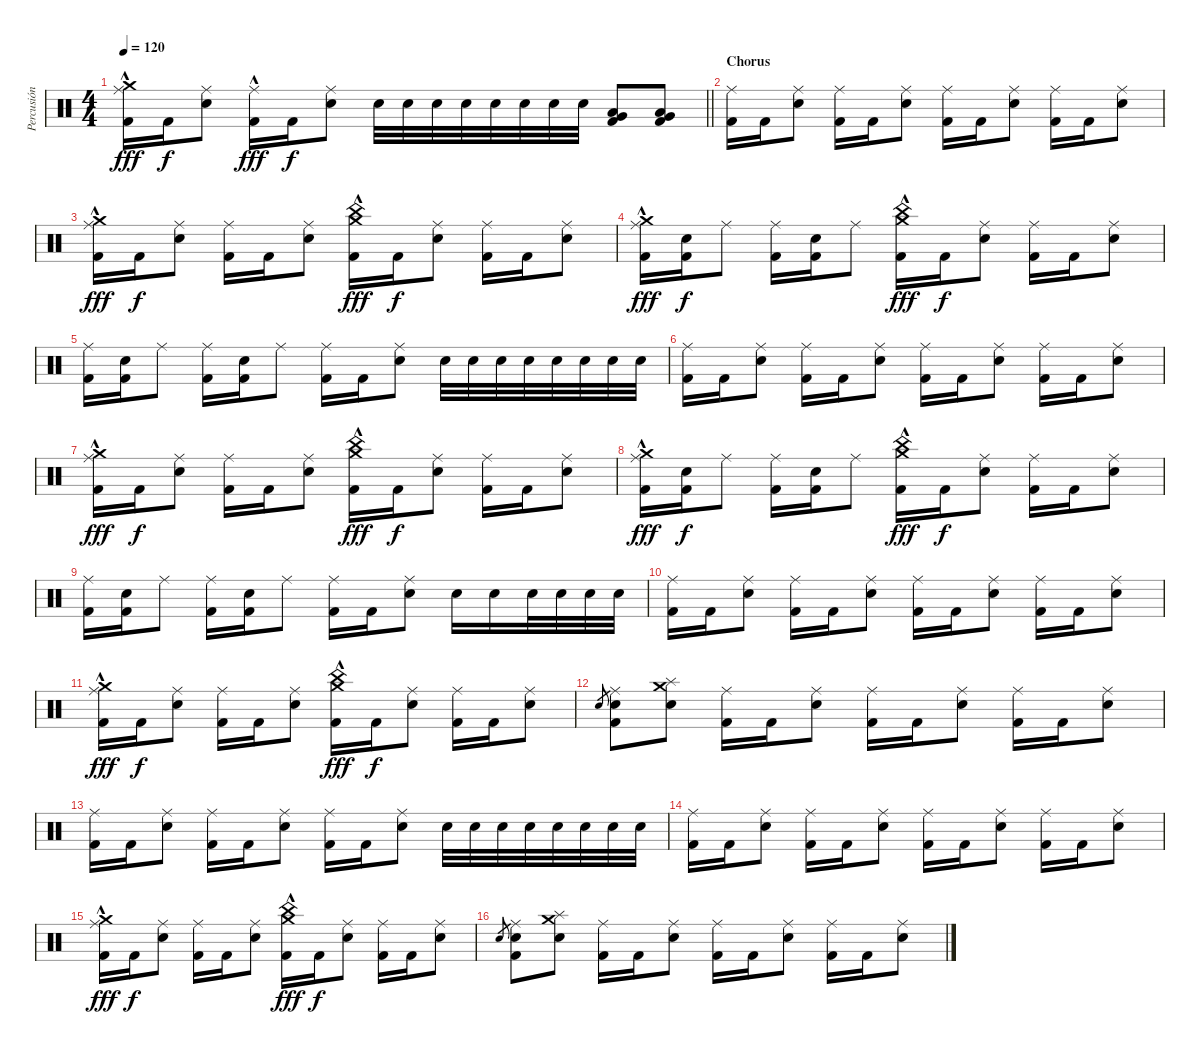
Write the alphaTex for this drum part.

\track ("Percusión" "Percusión") {instrument percussion}
\staff {score}
\articulation defaults
\ts (4 4)
\tempo 120
\clef neutral
\barLineRight lightlight
\ks c
("Crash medium (hit)"{hac} "Ride (middle)"{hac} "Kick (hit) 2").16{dy fff} "Kick (hit) 2".16{dy f} ("Ride (middle)" "Electric Snare (hit)").8 ("Ride (middle)"{hac} "Kick (hit) 2").16{dy fff} "Kick (hit) 2".16{dy f} ("Ride (middle)" "Electric Snare (hit)").8 "Electric Snare (hit)".32 "Electric Snare (hit)".32 "Electric Snare (hit)".32 "Electric Snare (hit)".32 "Electric Snare (hit)".32 "Electric Snare (hit)".32 "Electric Snare (hit)".32 "Electric Snare (hit)".32 ("Very Low Tom (hit)" "Low Tom (hit)" "Kick (hit) 2").8 ("Very Low Tom (hit)" "Low Tom (hit)" "Kick (hit) 2").8 |
\section ("" "Chorus")
("Ride (middle)" "Kick (hit) 2").16 "Kick (hit) 2".16 ("Ride (middle)" "Electric Snare (hit)").8 ("Ride (middle)" "Kick (hit) 2").16 "Kick (hit) 2".16 ("Ride (middle)" "Electric Snare (hit)").8 ("Ride (middle)" "Kick (hit) 2").16 "Kick (hit) 2".16 ("Ride (middle)" "Electric Snare (hit)").8 ("Ride (middle)" "Kick (hit) 2").16 "Kick (hit) 2".16 ("Ride (middle)" "Electric Snare (hit)").8 |
("Crash medium (hit)"{hac} "Ride (middle)"{hac} "Kick (hit) 2").16{dy fff} "Kick (hit) 2".16{dy f} ("Ride (middle)" "Electric Snare (hit)").8 ("Ride (middle)" "Kick (hit) 2").16 "Kick (hit) 2".16 ("Ride (middle)" "Electric Snare (hit)").8 ("China (hit)"{hac} "Crash medium (hit)"{hac} "Kick (hit) 2").16{dy fff} "Kick (hit) 2".16{dy f} ("Ride (middle)" "Electric Snare (hit)").8 ("Ride (middle)" "Kick (hit) 2").16 "Kick (hit) 2".16 ("Ride (middle)" "Electric Snare (hit)").8 |
("Crash medium (hit)"{hac} "Ride (middle)"{hac} "Kick (hit) 2").16{dy fff} ("Electric Snare (hit)" "Kick (hit) 2").16{dy f} "Ride (middle)".8 ("Ride (middle)" "Kick (hit) 2").16 ("Electric Snare (hit)" "Kick (hit) 2").16 "Ride (middle)".8 ("China (hit)"{hac} "Crash medium (hit)"{hac} "Kick (hit) 2").16{dy fff} "Kick (hit) 2".16{dy f} ("Ride (middle)" "Electric Snare (hit)").8 ("Ride (middle)" "Kick (hit) 2").16 "Kick (hit) 2".16 ("Ride (middle)" "Electric Snare (hit)").8 |
("Ride (middle)" "Kick (hit) 2").16 ("Electric Snare (hit)" "Kick (hit) 2").16 "Ride (middle)".8 ("Ride (middle)" "Kick (hit) 2").16 ("Electric Snare (hit)" "Kick (hit) 2").16 "Ride (middle)".8 ("Ride (middle)" "Kick (hit) 2").16 "Kick (hit) 2".16 ("Ride (middle)" "Electric Snare (hit)").8 "Electric Snare (hit)".32 "Electric Snare (hit)".32 "Electric Snare (hit)".32 "Electric Snare (hit)".32 "Electric Snare (hit)".32 "Electric Snare (hit)".32 "Electric Snare (hit)".32 "Electric Snare (hit)".32 |
("Ride (middle)" "Kick (hit) 2").16 "Kick (hit) 2".16 ("Ride (middle)" "Electric Snare (hit)").8 ("Ride (middle)" "Kick (hit) 2").16 "Kick (hit) 2".16 ("Ride (middle)" "Electric Snare (hit)").8 ("Ride (middle)" "Kick (hit) 2").16 "Kick (hit) 2".16 ("Ride (middle)" "Electric Snare (hit)").8 ("Ride (middle)" "Kick (hit) 2").16 "Kick (hit) 2".16 ("Ride (middle)" "Electric Snare (hit)").8 |
("Crash medium (hit)"{hac} "Ride (middle)"{hac} "Kick (hit) 2").16{dy fff} "Kick (hit) 2".16{dy f} ("Ride (middle)" "Electric Snare (hit)").8 ("Ride (middle)" "Kick (hit) 2").16 "Kick (hit) 2".16 ("Ride (middle)" "Electric Snare (hit)").8 ("China (hit)"{hac} "Crash medium (hit)"{hac} "Kick (hit) 2").16{dy fff} "Kick (hit) 2".16{dy f} ("Ride (middle)" "Electric Snare (hit)").8 ("Ride (middle)" "Kick (hit) 2").16 "Kick (hit) 2".16 ("Ride (middle)" "Electric Snare (hit)").8 |
("Crash medium (hit)"{hac} "Ride (middle)"{hac} "Kick (hit) 2").16{dy fff} ("Electric Snare (hit)" "Kick (hit) 2").16{dy f} "Ride (middle)".8 ("Ride (middle)" "Kick (hit) 2").16 ("Electric Snare (hit)" "Kick (hit) 2").16 "Ride (middle)".8 ("China (hit)"{hac} "Crash medium (hit)"{hac} "Kick (hit) 2").16{dy fff} "Kick (hit) 2".16{dy f} ("Ride (middle)" "Electric Snare (hit)").8 ("Ride (middle)" "Kick (hit) 2").16 "Kick (hit) 2".16 ("Ride (middle)" "Electric Snare (hit)").8 |
("Ride (middle)" "Kick (hit) 2").16 ("Electric Snare (hit)" "Kick (hit) 2").16 "Ride (middle)".8 ("Ride (middle)" "Kick (hit) 2").16 ("Electric Snare (hit)" "Kick (hit) 2").16 "Ride (middle)".8 ("Ride (middle)" "Kick (hit) 2").16 "Kick (hit) 2".16 ("Ride (middle)" "Electric Snare (hit)").8 "Electric Snare (hit)".16 "Electric Snare (hit)".16 "Electric Snare (hit)".32 "Electric Snare (hit)".32 "Electric Snare (hit)".32 "Electric Snare (hit)".32 |
("Ride (middle)" "Kick (hit) 2").16 "Kick (hit) 2".16 ("Ride (middle)" "Electric Snare (hit)").8 ("Ride (middle)" "Kick (hit) 2").16 "Kick (hit) 2".16 ("Ride (middle)" "Electric Snare (hit)").8 ("Ride (middle)" "Kick (hit) 2").16 "Kick (hit) 2".16 ("Ride (middle)" "Electric Snare (hit)").8 ("Ride (middle)" "Kick (hit) 2").16 "Kick (hit) 2".16 ("Ride (middle)" "Electric Snare (hit)").8 |
("Crash medium (hit)"{hac} "Ride (middle)"{hac} "Kick (hit) 2").16{dy fff} "Kick (hit) 2".16{dy f} ("Ride (middle)" "Electric Snare (hit)").8 ("Ride (middle)" "Kick (hit) 2").16 "Kick (hit) 2".16 ("Ride (middle)" "Electric Snare (hit)").8 ("China (hit)"{hac} "Crash medium (hit)"{hac} "Kick (hit) 2").16{dy fff} "Kick (hit) 2".16{dy f} ("Ride (middle)" "Electric Snare (hit)").8 ("Ride (middle)" "Kick (hit) 2").16 "Kick (hit) 2".16 ("Ride (middle)" "Electric Snare (hit)").8 |
"Electric Snare (hit)".8{gr} ("Ride (middle)" "Electric Snare (hit)" "Kick (hit) 2").8 ("Crash medium (hit)" "Splash (hit)" "Snare (hit) 2").8 ("Ride (middle)" "Kick (hit) 2").16 "Kick (hit) 2".16 ("Ride (middle)" "Electric Snare (hit)").8 ("Ride (middle)" "Kick (hit) 2").16 "Kick (hit) 2".16 ("Ride (middle)" "Electric Snare (hit)").8 ("Ride (middle)" "Kick (hit) 2").16 "Kick (hit) 2".16 ("Ride (middle)" "Electric Snare (hit)").8 |
("Ride (middle)" "Kick (hit) 2").16 "Kick (hit) 2".16 ("Ride (middle)" "Electric Snare (hit)").8 ("Ride (middle)" "Kick (hit) 2").16 "Kick (hit) 2".16 ("Ride (middle)" "Electric Snare (hit)").8 ("Ride (middle)" "Kick (hit) 2").16 "Kick (hit) 2".16 ("Ride (middle)" "Electric Snare (hit)").8 "Electric Snare (hit)".32 "Electric Snare (hit)".32 "Electric Snare (hit)".32 "Electric Snare (hit)".32 "Electric Snare (hit)".32 "Electric Snare (hit)".32 "Electric Snare (hit)".32 "Electric Snare (hit)".32 |
("Ride (middle)" "Kick (hit) 2").16 "Kick (hit) 2".16 ("Ride (middle)" "Electric Snare (hit)").8 ("Ride (middle)" "Kick (hit) 2").16 "Kick (hit) 2".16 ("Ride (middle)" "Electric Snare (hit)").8 ("Ride (middle)" "Kick (hit) 2").16 "Kick (hit) 2".16 ("Ride (middle)" "Electric Snare (hit)").8 ("Ride (middle)" "Kick (hit) 2").16 "Kick (hit) 2".16 ("Ride (middle)" "Electric Snare (hit)").8 |
("Crash medium (hit)"{hac} "Ride (middle)"{hac} "Kick (hit) 2").16{dy fff} "Kick (hit) 2".16{dy f} ("Ride (middle)" "Electric Snare (hit)").8 ("Ride (middle)" "Kick (hit) 2").16 "Kick (hit) 2".16 ("Ride (middle)" "Electric Snare (hit)").8 ("China (hit)"{hac} "Crash medium (hit)"{hac} "Kick (hit) 2").16{dy fff} "Kick (hit) 2".16{dy f} ("Ride (middle)" "Electric Snare (hit)").8 ("Ride (middle)" "Kick (hit) 2").16 "Kick (hit) 2".16 ("Ride (middle)" "Electric Snare (hit)").8 |
"Electric Snare (hit)".8{gr} ("Ride (middle)" "Electric Snare (hit)" "Kick (hit) 2").8 ("Crash medium (hit)" "Splash (hit)" "Snare (hit) 2").8 ("Ride (middle)" "Kick (hit) 2").16 "Kick (hit) 2".16 ("Ride (middle)" "Electric Snare (hit)").8 ("Ride (middle)" "Kick (hit) 2").16 "Kick (hit) 2".16 ("Ride (middle)" "Electric Snare (hit)").8 ("Ride (middle)" "Kick (hit) 2").16 "Kick (hit) 2".16 ("Ride (middle)" "Electric Snare (hit)").8
